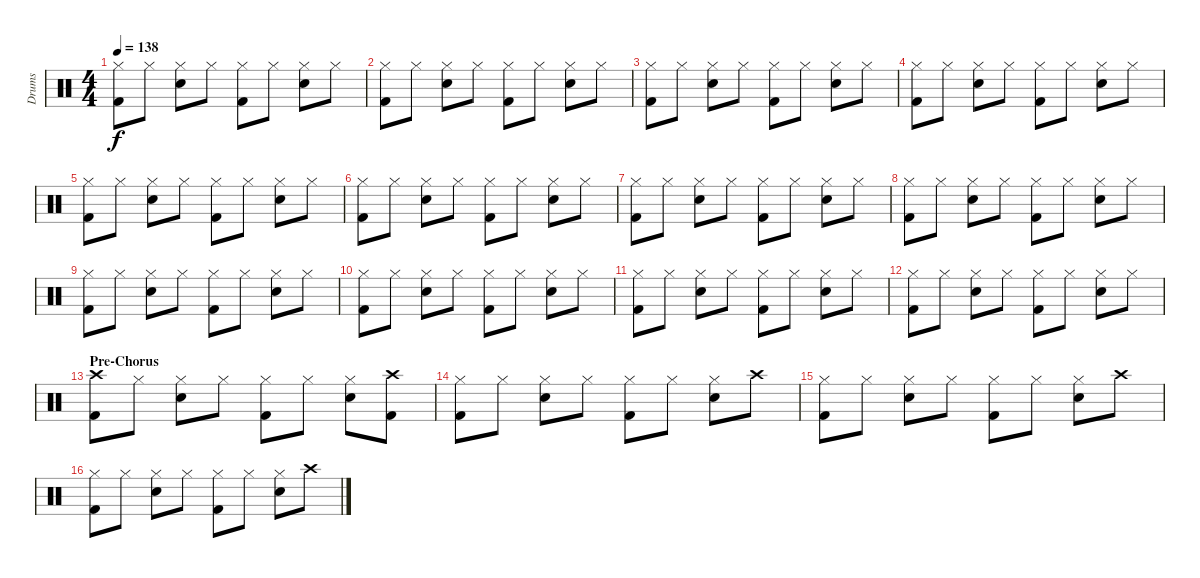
\track ("Drums" "Drums") {instrument percussion}
\staff {score}
\articulation defaults
\ts (4 4)
\tempo 138
\clef neutral
\ks c
("Hi-Hat (closed)" "Kick (hit) 2").8{dy f} "Hi-Hat (closed)".8 ("Hi-Hat (closed)" "Snare (hit) 2").8 "Hi-Hat (closed)".8 ("Hi-Hat (closed)" "Kick (hit) 2").8 "Hi-Hat (closed)".8 ("Hi-Hat (closed)" "Snare (hit) 2").8 "Hi-Hat (closed)".8 |
("Hi-Hat (closed)" "Kick (hit) 2").8 "Hi-Hat (closed)".8 ("Hi-Hat (closed)" "Snare (hit) 2").8 "Hi-Hat (closed)".8 ("Hi-Hat (closed)" "Kick (hit) 2").8 "Hi-Hat (closed)".8 ("Hi-Hat (closed)" "Snare (hit) 2").8 "Hi-Hat (closed)".8 |
("Hi-Hat (closed)" "Kick (hit) 2").8 "Hi-Hat (closed)".8 ("Hi-Hat (closed)" "Snare (hit) 2").8 "Hi-Hat (closed)".8 ("Hi-Hat (closed)" "Kick (hit) 2").8 "Hi-Hat (closed)".8 ("Hi-Hat (closed)" "Snare (hit) 2").8 "Hi-Hat (closed)".8 |
("Hi-Hat (closed)" "Kick (hit) 2").8 "Hi-Hat (closed)".8 ("Hi-Hat (closed)" "Snare (hit) 2").8 "Hi-Hat (closed)".8 ("Hi-Hat (closed)" "Kick (hit) 2").8 "Hi-Hat (closed)".8 ("Hi-Hat (closed)" "Snare (hit) 2").8 "Hi-Hat (closed)".8 |
("Hi-Hat (closed)" "Kick (hit) 2").8 "Hi-Hat (closed)".8 ("Hi-Hat (closed)" "Snare (hit) 2").8 "Hi-Hat (closed)".8 ("Hi-Hat (closed)" "Kick (hit) 2").8 "Hi-Hat (closed)".8 ("Hi-Hat (closed)" "Snare (hit) 2").8 "Hi-Hat (closed)".8 |
("Hi-Hat (closed)" "Kick (hit) 2").8 "Hi-Hat (closed)".8 ("Hi-Hat (closed)" "Snare (hit) 2").8 "Hi-Hat (closed)".8 ("Hi-Hat (closed)" "Kick (hit) 2").8 "Hi-Hat (closed)".8 ("Hi-Hat (closed)" "Snare (hit) 2").8 "Hi-Hat (closed)".8 |
("Hi-Hat (closed)" "Kick (hit) 2").8 "Hi-Hat (closed)".8 ("Hi-Hat (closed)" "Snare (hit) 2").8 "Hi-Hat (closed)".8 ("Hi-Hat (closed)" "Kick (hit) 2").8 "Hi-Hat (closed)".8 ("Hi-Hat (closed)" "Snare (hit) 2").8 "Hi-Hat (closed)".8 |
("Hi-Hat (closed)" "Kick (hit) 2").8 "Hi-Hat (closed)".8 ("Hi-Hat (closed)" "Snare (hit) 2").8 "Hi-Hat (closed)".8 ("Hi-Hat (closed)" "Kick (hit) 2").8 "Hi-Hat (closed)".8 ("Hi-Hat (closed)" "Snare (hit) 2").8 "Hi-Hat (closed)".8 |
("Hi-Hat (closed)" "Kick (hit) 2").8 "Hi-Hat (closed)".8 ("Hi-Hat (closed)" "Snare (hit) 2").8 "Hi-Hat (closed)".8 ("Hi-Hat (closed)" "Kick (hit) 2").8 "Hi-Hat (closed)".8 ("Hi-Hat (closed)" "Snare (hit) 2").8 "Hi-Hat (closed)".8 |
("Hi-Hat (closed)" "Kick (hit) 2").8 "Hi-Hat (closed)".8 ("Hi-Hat (closed)" "Snare (hit) 2").8 "Hi-Hat (closed)".8 ("Hi-Hat (closed)" "Kick (hit) 2").8 "Hi-Hat (closed)".8 ("Hi-Hat (closed)" "Snare (hit) 2").8 "Hi-Hat (closed)".8 |
("Hi-Hat (closed)" "Kick (hit) 2").8 "Hi-Hat (closed)".8 ("Hi-Hat (closed)" "Snare (hit) 2").8 "Hi-Hat (closed)".8 ("Hi-Hat (closed)" "Kick (hit) 2").8 "Hi-Hat (closed)".8 ("Hi-Hat (closed)" "Snare (hit) 2").8 "Hi-Hat (closed)".8 |
("Hi-Hat (closed)" "Kick (hit) 2").8 "Hi-Hat (closed)".8 ("Hi-Hat (closed)" "Snare (hit) 2").8 "Hi-Hat (closed)".8 ("Hi-Hat (closed)" "Kick (hit) 2").8 "Hi-Hat (closed)".8 ("Hi-Hat (closed)" "Snare (hit) 2").8 "Hi-Hat (closed)".8 |
\section ("" "Pre-Chorus")
("Crash high (hit)" "Kick (hit) 2").8 "Hi-Hat (closed)".8 ("Hi-Hat (closed)" "Snare (hit) 2").8 "Hi-Hat (closed)".8 ("Hi-Hat (closed)" "Kick (hit) 2").8 "Hi-Hat (closed)".8 ("Hi-Hat (closed)" "Snare (hit) 2").8 ("Crash high (hit)" "Kick (hit) 2").8 |
("Hi-Hat (closed)" "Kick (hit) 2").8 "Hi-Hat (closed)".8 ("Hi-Hat (closed)" "Snare (hit) 2").8 "Hi-Hat (closed)".8 ("Hi-Hat (closed)" "Kick (hit) 2").8 "Hi-Hat (closed)".8 ("Hi-Hat (closed)" "Snare (hit) 2").8 "Crash high (hit)".8 |
("Hi-Hat (closed)" "Kick (hit) 2").8 "Hi-Hat (closed)".8 ("Hi-Hat (closed)" "Snare (hit) 2").8 "Hi-Hat (closed)".8 ("Hi-Hat (closed)" "Kick (hit) 2").8 "Hi-Hat (closed)".8 ("Hi-Hat (closed)" "Snare (hit) 2").8 "Crash high (hit)".8 |
("Hi-Hat (closed)" "Kick (hit) 2").8 "Hi-Hat (closed)".8 ("Hi-Hat (closed)" "Snare (hit) 2").8 "Hi-Hat (closed)".8 ("Hi-Hat (closed)" "Kick (hit) 2").8 "Hi-Hat (closed)".8 ("Hi-Hat (closed)" "Snare (hit) 2").8 "Crash high (hit)".8
